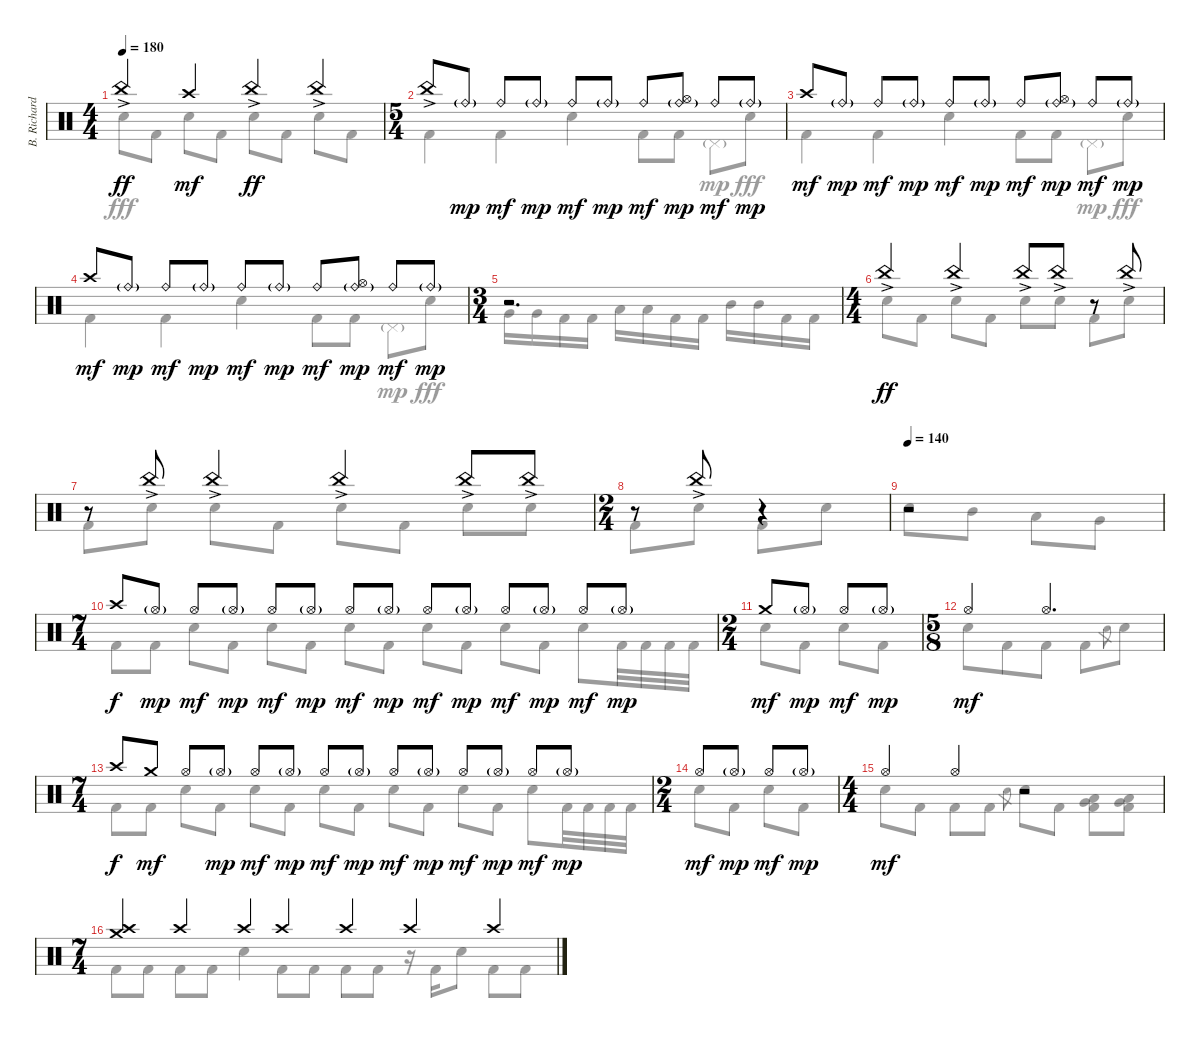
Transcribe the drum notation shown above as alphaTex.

\track ("B. Richardson Drums" "B. Richard") {instrument percussion}
\staff {score}
\articulation defaults
\voice
\ts (4 4)
\tempo 180
\clef neutral
\ks c "China (hit)"{ac}.4{dy ff} "Crash high (hit)".4{dy mf} "China (hit)"{ac}.4{dy ff} "China (hit)"{ac}.4
|
\ts (5 4)
"China (hit)"{ac}.8 "Ride (bell)"{g}.8{dy mp} "Ride (bell)".8{dy mf} "Ride (bell)"{g}.8{dy mp} "Ride (bell)".8{dy mf} "Ride (bell)"{g}.8{dy mp} "Ride (bell)".8{dy mf} ("Ride (bell)"{g} "Hi-Hat (open)").8{dy mp} "Ride (bell)".8{dy mf} "Ride (bell)"{g}.8{dy mp} |
"Crash high (hit)".8{dy mf} "Ride (bell)"{g}.8{dy mp} "Ride (bell)".8{dy mf} "Ride (bell)"{g}.8{dy mp} "Ride (bell)".8{dy mf} "Ride (bell)"{g}.8{dy mp} "Ride (bell)".8{dy mf} ("Ride (bell)"{g} "Hi-Hat (open)").8{dy mp} "Ride (bell)".8{dy mf} "Ride (bell)"{g}.8{dy mp} |
"Crash high (hit)".8{dy mf} "Ride (bell)"{g}.8{dy mp} "Ride (bell)".8{dy mf} "Ride (bell)"{g}.8{dy mp} "Ride (bell)".8{dy mf} "Ride (bell)"{g}.8{dy mp} "Ride (bell)".8{dy mf} ("Ride (bell)"{g} "Hi-Hat (open)").8{dy mp} "Ride (bell)".8{dy mf} "Ride (bell)"{g}.8{dy mp} |
\ts (3 4)
r.2{d} |
\ts (4 4)
"China (hit)"{ac}.4{dy ff} "China (hit)"{ac}.4 "China (hit)"{ac}.8 "China (hit)"{ac}.8 r.8 "China (hit)"{ac}.8 |
r.8 "China (hit)"{ac}.8 "China (hit)"{ac}.4 "China (hit)"{ac}.4 "China (hit)"{ac}.8 "China (hit)"{ac}.8 |
\ts (2 4)
r.8 "China (hit)"{ac}.8 r.4 |
\tempo 140
r.2 |
\ts (7 4)
"Crash high (hit)".8{dy f} "Hi-Hat (open)"{g}.8{dy mp} "Hi-Hat (open)".8{dy mf} "Hi-Hat (open)"{g}.8{dy mp} "Hi-Hat (open)".8{dy mf} "Hi-Hat (open)"{g}.8{dy mp} "Hi-Hat (open)".8{dy mf} "Hi-Hat (open)"{g}.8{dy mp} "Hi-Hat (open)".8{dy mf} "Hi-Hat (open)"{g}.8{dy mp} "Hi-Hat (open)".8{dy mf} "Hi-Hat (open)"{g}.8{dy mp} "Hi-Hat (open)".8{dy mf} "Hi-Hat (open)"{g}.8{dy mp} |
\ts (2 4)
"Crash medium (hit)".8{dy mf} "Hi-Hat (open)"{g}.8{dy mp} "Hi-Hat (open)".8{dy mf} "Hi-Hat (open)"{g}.8{dy mp} |
\ts (5 8)
"Hi-Hat (open)".4{dy mf} "Hi-Hat (open)".4{d} |
\ts (7 4)
"Crash high (hit)".8{dy f} "Crash medium (hit)".8{dy mf} "Hi-Hat (open)".8 "Hi-Hat (open)"{g}.8{dy mp} "Hi-Hat (open)".8{dy mf} "Hi-Hat (open)"{g}.8{dy mp} "Hi-Hat (open)".8{dy mf} "Hi-Hat (open)"{g}.8{dy mp} "Hi-Hat (open)".8{dy mf} "Hi-Hat (open)"{g}.8{dy mp} "Hi-Hat (open)".8{dy mf} "Hi-Hat (open)"{g}.8{dy mp} "Hi-Hat (open)".8{dy mf} "Hi-Hat (open)"{g}.8{dy mp} |
\ts (2 4)
"Hi-Hat (open)".8{dy mf} "Hi-Hat (open)"{g}.8{dy mp} "Hi-Hat (open)".8{dy mf} "Hi-Hat (open)"{g}.8{dy mp} |
\ts (4 4)
"Hi-Hat (open)".4{dy mf} "Hi-Hat (open)".4 r.2 |
\ts (7 4)
("Crash high (hit)" "Crash medium (hit)").4 "Crash high (hit)".4 "Crash high (hit)".4 "Crash high (hit)".4 "Crash high (hit)".4 "Crash high (hit)".4 "Crash high (hit)".4
\voice
\clef neutral
\ottava regular
\simile none
\ks c "Electric Snare (hit)".8{dy fff} "Kick (hit) 2".8 "Electric Snare (hit)".8 "Kick (hit) 2".8 "Electric Snare (hit)".8 "Kick (hit) 2".8 "Electric Snare (hit)".8 "Kick (hit) 2".8
|
"Kick (hit) 2".4 "Kick (hit) 2".4 "Electric Snare (hit)".4 "Kick (hit) 2".8 "Kick (hit) 2".8 "Pedal Hi-Hat (hit)"{g}.8{dy mp} "Electric Snare (hit)".8{dy fff} |
"Kick (hit) 2".4 "Kick (hit) 2".4 "Electric Snare (hit)".4 "Kick (hit) 2".8 "Kick (hit) 2".8 "Pedal Hi-Hat (hit)"{g}.8{dy mp} "Electric Snare (hit)".8{dy fff} |
"Kick (hit) 2".4 "Kick (hit) 2".4 "Electric Snare (hit)".4 "Kick (hit) 2".8 "Kick (hit) 2".8 "Pedal Hi-Hat (hit)"{g}.8{dy mp} "Electric Snare (hit)".8{dy fff} |
"Very Low Tom (hit)".16 "Very Low Tom (hit)".16 "Kick (hit) 2".16 "Kick (hit) 2".16 "Low Tom (hit)".16 "Low Tom (hit)".16 "Kick (hit) 2".16 "Kick (hit) 2".16 "Mid Tom (hit)".16 "Mid Tom (hit)".16 "Kick (hit) 2".16 "Kick (hit) 2".16 |
"Electric Snare (hit)".8 "Kick (hit) 2".8 "Electric Snare (hit)".8 "Kick (hit) 2".8 "Electric Snare (hit)".8 "Electric Snare (hit)".8 "Kick (hit) 2".8 "Electric Snare (hit)".8 |
"Kick (hit) 2".8 "Electric Snare (hit)".8 "Electric Snare (hit)".8 "Kick (hit) 2".8 "Electric Snare (hit)".8 "Kick (hit) 2".8 "Electric Snare (hit)".8 "Electric Snare (hit)".8 |
"Kick (hit) 2".8 "Electric Snare (hit)".8 "Kick (hit) 2".8 "Electric Snare (hit)".8 |
"Electric Snare (hit)".8 "Mid Tom (hit)".8 "Low Tom (hit)".8 "Very Low Tom (hit)".8 |
"Kick (hit) 2".8 "Kick (hit) 2".8 "Electric Snare (hit)".8 "Kick (hit) 2".8 "Electric Snare (hit)".8 "Kick (hit) 2".8 "Electric Snare (hit)".8 "Kick (hit) 2".8 "Electric Snare (hit)".8 "Kick (hit) 2".8 "Electric Snare (hit)".8 "Kick (hit) 2".8 "Electric Snare (hit)".8 "Kick (hit) 2".32 "Kick (hit) 2".32 "Kick (hit) 2".32 "Kick (hit) 2".32 |
"Electric Snare (hit)".8 "Kick (hit) 2".8 "Electric Snare (hit)".8 "Kick (hit) 2".8 |
"Electric Snare (hit)".8 "Kick (hit) 2".8 "Kick (hit) 2".8 "Kick (hit) 2".8 "Electric Snare (hit)".8{gr} "Electric Snare (hit)".8 |
"Kick (hit) 2".8 "Kick (hit) 2".8 "Electric Snare (hit)".8 "Kick (hit) 2".8 "Electric Snare (hit)".8 "Kick (hit) 2".8 "Electric Snare (hit)".8 "Kick (hit) 2".8 "Electric Snare (hit)".8 "Kick (hit) 2".8 "Electric Snare (hit)".8 "Kick (hit) 2".8 "Electric Snare (hit)".8 "Kick (hit) 2".32 "Kick (hit) 2".32 "Kick (hit) 2".32 "Kick (hit) 2".32 |
"Electric Snare (hit)".8 "Kick (hit) 2".8 "Electric Snare (hit)".8 "Kick (hit) 2".8 |
"Electric Snare (hit)".8 "Kick (hit) 2".8 "Kick (hit) 2".8 "Kick (hit) 2".8 "Electric Snare (hit)".8{gr} "Electric Snare (hit)".8 "Kick (hit) 2".8 ("Low Tom (hit)" "Very Low Tom (hit)" "Kick (hit) 2").8 ("Low Tom (hit)" "Very Low Tom (hit)" "Kick (hit) 2").8 |
"Kick (hit) 2".8 "Kick (hit) 2".8 "Kick (hit) 2".8 "Kick (hit) 2".8 "Electric Snare (hit)".4 "Kick (hit) 2".8 "Kick (hit) 2".8 "Kick (hit) 2".8 "Kick (hit) 2".8 r.16 "Kick (hit) 2".16 "Electric Snare (hit)".8 "Kick (hit) 2".8 "Kick (hit) 2".8
